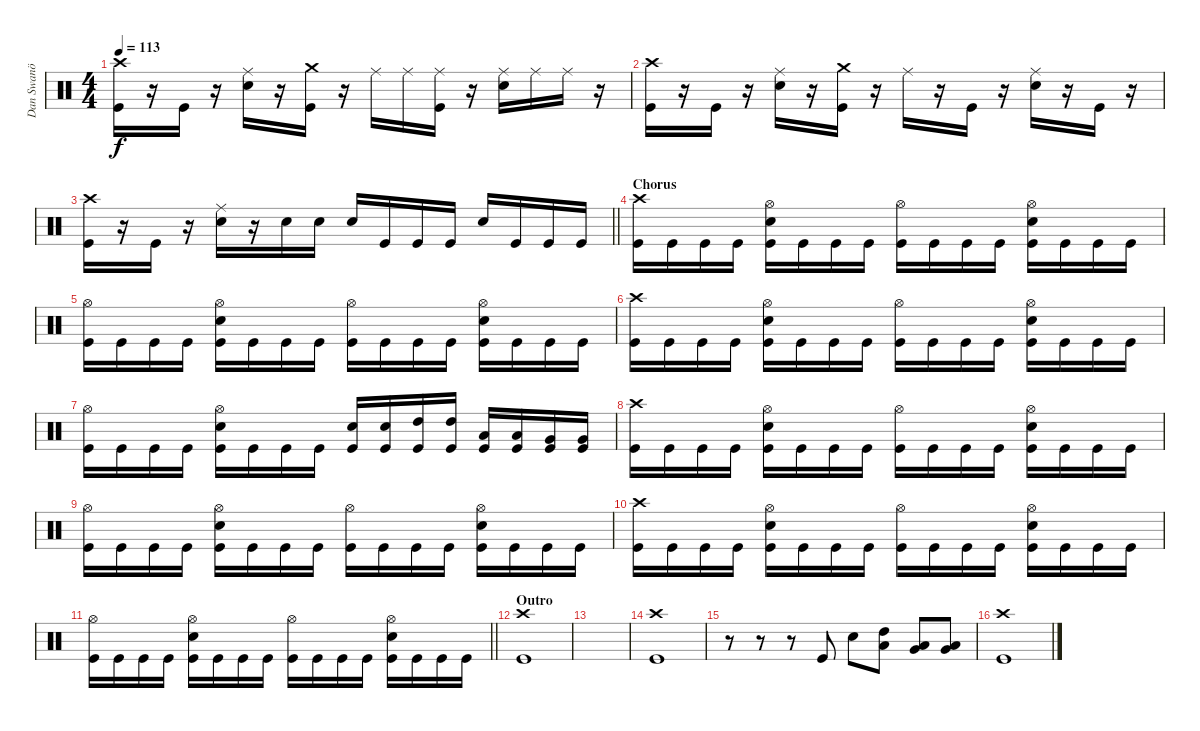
\track ("Dan Swanö" "Dan Swanö") {instrument percussion}
\staff {score}
\articulation defaults
\ts (4 4)
\tempo 113
\clef neutral
\ks c
("Crash high (hit)" "Kick (hit)").16{dy f} r.16 "Kick (hit)".16 r.16 ("Ride (middle)" "Snare (hit) 2").16 r.16 ("Crash medium (hit)" "Kick (hit)").16 r.16 "Ride (middle)".16 "Ride (middle)".16 ("Ride (middle)" "Kick (hit)").16 r.16 ("Ride (middle)" "Snare (hit) 2").16 "Ride (middle)".16 "Ride (middle)".16 r.16 |
("Crash high (hit)" "Kick (hit)").16 r.16 "Kick (hit)".16 r.16 ("Ride (middle)" "Snare (hit) 2").16 r.16 ("Crash medium (hit)" "Kick (hit)").16 r.16 "Ride (middle)".16 r.16 "Kick (hit)".16 r.16 ("Ride (middle)" "Snare (hit) 2").16 r.16 "Kick (hit)".16 r.16 |
\barLineRight lightlight
("Crash high (hit)" "Kick (hit)").16 r.16 "Kick (hit)".16 r.16 ("Ride (middle)" "Snare (hit) 2").16 r.16 "Snare (hit) 2".16 "Snare (hit) 2".16 "Snare (hit) 2".16 "Kick (hit)".16 "Kick (hit)".16 "Kick (hit)".16 "Snare (hit) 2".16 "Kick (hit)".16 "Kick (hit)".16 "Kick (hit)".16 |
\section ("" "Chorus")
("Crash high (hit)" "Kick (hit)").16 "Kick (hit)".16 "Kick (hit)".16 "Kick (hit)".16 ("Hi-Hat (open)" "Snare (hit) 2" "Kick (hit)").16 "Kick (hit)".16 "Kick (hit)".16 "Kick (hit)".16 ("Hi-Hat (open)" "Kick (hit)").16 "Kick (hit)".16 "Kick (hit)".16 "Kick (hit)".16 ("Hi-Hat (open)" "Snare (hit) 2" "Kick (hit)").16 "Kick (hit)".16 "Kick (hit)".16 "Kick (hit)".16 |
("Hi-Hat (open)" "Kick (hit)").16 "Kick (hit)".16 "Kick (hit)".16 "Kick (hit)".16 ("Hi-Hat (open)" "Snare (hit) 2" "Kick (hit)").16 "Kick (hit)".16 "Kick (hit)".16 "Kick (hit)".16 ("Hi-Hat (open)" "Kick (hit)").16 "Kick (hit)".16 "Kick (hit)".16 "Kick (hit)".16 ("Hi-Hat (open)" "Snare (hit) 2" "Kick (hit)").16 "Kick (hit)".16 "Kick (hit)".16 "Kick (hit)".16 |
("Crash high (hit)" "Kick (hit)").16 "Kick (hit)".16 "Kick (hit)".16 "Kick (hit)".16 ("Hi-Hat (open)" "Snare (hit) 2" "Kick (hit)").16 "Kick (hit)".16 "Kick (hit)".16 "Kick (hit)".16 ("Hi-Hat (open)" "Kick (hit)").16 "Kick (hit)".16 "Kick (hit)".16 "Kick (hit)".16 ("Hi-Hat (open)" "Snare (hit) 2" "Kick (hit)").16 "Kick (hit)".16 "Kick (hit)".16 "Kick (hit)".16 |
("Hi-Hat (open)" "Kick (hit)").16 "Kick (hit)".16 "Kick (hit)".16 "Kick (hit)".16 ("Hi-Hat (open)" "Snare (hit) 2" "Kick (hit)").16 "Kick (hit)".16 "Kick (hit)".16 "Kick (hit)".16 ("Snare (hit) 2" "Kick (hit)").16 ("Snare (hit) 2" "Kick (hit)").16 ("High Tom (hit)" "Kick (hit)").16 ("High Tom (hit)" "Kick (hit)").16 ("Low Tom (hit)" "Kick (hit)").16 ("Low Tom (hit)" "Kick (hit)").16 ("Very Low Tom (hit)" "Kick (hit)").16 ("Very Low Tom (hit)" "Kick (hit)").16 |
("Crash high (hit)" "Kick (hit)").16 "Kick (hit)".16 "Kick (hit)".16 "Kick (hit)".16 ("Hi-Hat (open)" "Snare (hit) 2" "Kick (hit)").16 "Kick (hit)".16 "Kick (hit)".16 "Kick (hit)".16 ("Hi-Hat (open)" "Kick (hit)").16 "Kick (hit)".16 "Kick (hit)".16 "Kick (hit)".16 ("Hi-Hat (open)" "Snare (hit) 2" "Kick (hit)").16 "Kick (hit)".16 "Kick (hit)".16 "Kick (hit)".16 |
("Hi-Hat (open)" "Kick (hit)").16 "Kick (hit)".16 "Kick (hit)".16 "Kick (hit)".16 ("Hi-Hat (open)" "Snare (hit) 2" "Kick (hit)").16 "Kick (hit)".16 "Kick (hit)".16 "Kick (hit)".16 ("Hi-Hat (open)" "Kick (hit)").16 "Kick (hit)".16 "Kick (hit)".16 "Kick (hit)".16 ("Hi-Hat (open)" "Snare (hit) 2" "Kick (hit)").16 "Kick (hit)".16 "Kick (hit)".16 "Kick (hit)".16 |
("Crash high (hit)" "Kick (hit)").16 "Kick (hit)".16 "Kick (hit)".16 "Kick (hit)".16 ("Hi-Hat (open)" "Snare (hit) 2" "Kick (hit)").16 "Kick (hit)".16 "Kick (hit)".16 "Kick (hit)".16 ("Hi-Hat (open)" "Kick (hit)").16 "Kick (hit)".16 "Kick (hit)".16 "Kick (hit)".16 ("Hi-Hat (open)" "Snare (hit) 2" "Kick (hit)").16 "Kick (hit)".16 "Kick (hit)".16 "Kick (hit)".16 |
\barLineRight lightlight
("Hi-Hat (open)" "Kick (hit)").16 "Kick (hit)".16 "Kick (hit)".16 "Kick (hit)".16 ("Hi-Hat (open)" "Snare (hit) 2" "Kick (hit)").16 "Kick (hit)".16 "Kick (hit)".16 "Kick (hit)".16 ("Hi-Hat (open)" "Kick (hit)").16 "Kick (hit)".16 "Kick (hit)".16 "Kick (hit)".16 ("Hi-Hat (open)" "Snare (hit) 2" "Kick (hit)").16 "Kick (hit)".16 "Kick (hit)".16 "Kick (hit)".16 |
\section ("" "Outro")
("Crash high (hit)" "Kick (hit)").1 |
|
("Crash high (hit)" "Kick (hit)").1 |
r.8 r.8 r.8 "Kick (hit)".8 "Snare (hit) 2".8 ("Low Tom (hit)" "High Tom (hit)").8 ("Very Low Tom (hit)" "Low Tom (hit)").8 ("Low Floor Tom (hit)" "Very Low Tom (hit)").8 |
("Crash high (hit)" "Kick (hit)").1
